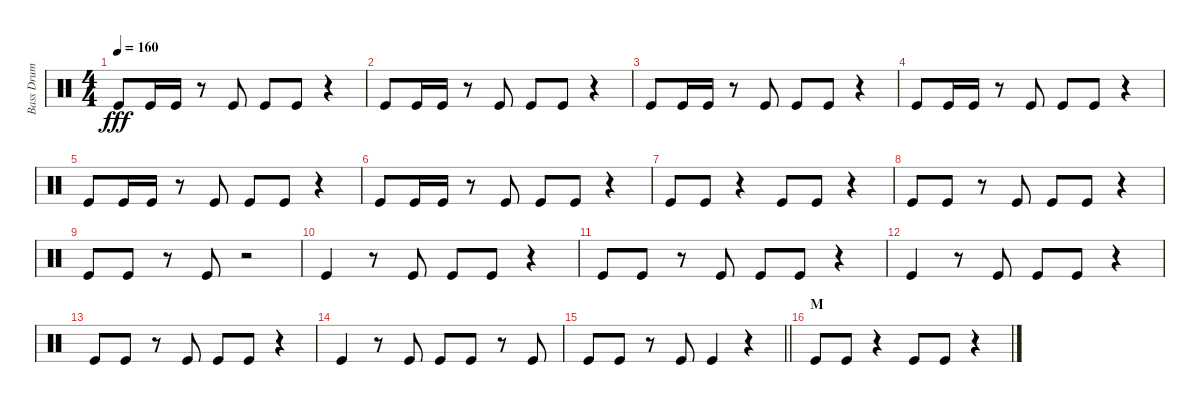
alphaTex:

\track ("Bass Drum" "Bass Drum") {instrument percussion}
\staff {score}
\articulation defaults
\ts (4 4)
\tempo 160
\clef neutral
\ks c "Kick (hit)".8{dy fff} "Kick (hit)".16 "Kick (hit)".16
r.8 "Kick (hit)".8 "Kick (hit)".8 "Kick (hit)".8 r.4 |
"Kick (hit)".8 "Kick (hit)".16 "Kick (hit)".16 r.8 "Kick (hit)".8 "Kick (hit)".8 "Kick (hit)".8 r.4 |
"Kick (hit)".8 "Kick (hit)".16 "Kick (hit)".16 r.8 "Kick (hit)".8 "Kick (hit)".8 "Kick (hit)".8 r.4 |
"Kick (hit)".8 "Kick (hit)".16 "Kick (hit)".16 r.8 "Kick (hit)".8 "Kick (hit)".8 "Kick (hit)".8 r.4 |
"Kick (hit)".8 "Kick (hit)".16 "Kick (hit)".16 r.8 "Kick (hit)".8 "Kick (hit)".8 "Kick (hit)".8 r.4 |
"Kick (hit)".8 "Kick (hit)".16 "Kick (hit)".16 r.8 "Kick (hit)".8 "Kick (hit)".8 "Kick (hit)".8 r.4 |
"Kick (hit)".8 "Kick (hit)".8 r.4 "Kick (hit)".8 "Kick (hit)".8 r.4 |
"Kick (hit)".8 "Kick (hit)".8 r.8 "Kick (hit)".8 "Kick (hit)".8 "Kick (hit)".8 r.4 |
"Kick (hit)".8 "Kick (hit)".8 r.8 "Kick (hit)".8 r.2 |
"Kick (hit)".4 r.8 "Kick (hit)".8 "Kick (hit)".8 "Kick (hit)".8 r.4 |
"Kick (hit)".8 "Kick (hit)".8 r.8 "Kick (hit)".8 "Kick (hit)".8 "Kick (hit)".8 r.4 |
"Kick (hit)".4 r.8 "Kick (hit)".8 "Kick (hit)".8 "Kick (hit)".8 r.4 |
"Kick (hit)".8 "Kick (hit)".8 r.8 "Kick (hit)".8 "Kick (hit)".8 "Kick (hit)".8 r.4 |
"Kick (hit)".4 r.8 "Kick (hit)".8 "Kick (hit)".8 "Kick (hit)".8 r.8 "Kick (hit)".8 |
\barLineRight lightlight "Kick (hit)".8 "Kick (hit)".8
r.8 "Kick (hit)".8 "Kick (hit)".4 r.4 |
\section ("" "M")
"Kick (hit)".8 "Kick (hit)".8 r.4 "Kick (hit)".8 "Kick (hit)".8 r.4
